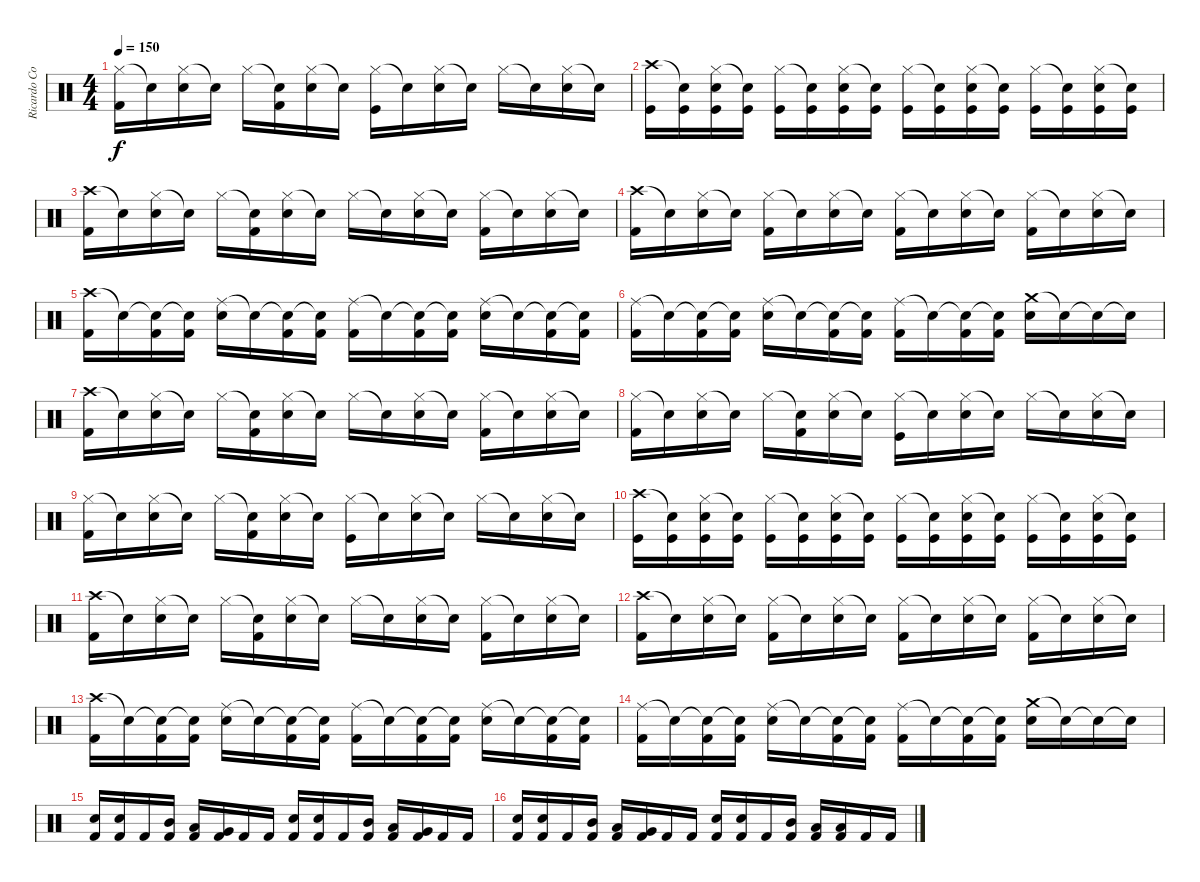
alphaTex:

\track ("Ricardo Confessori" "Ricardo Co") {instrument percussion}
\staff {score}
\articulation defaults
\ts (4 4)
\tempo 150
\clef neutral
\ks c
("Hi-Hat (closed)" "Kick (hit) 2").16{dy f} "Snare (hit)"{t}.16 ("Hi-Hat (closed)" "Electric Snare (hit)").16 "Snare (hit)"{t}.16 "Hi-Hat (closed)".16 ("Snare (hit)"{t} "Kick (hit) 2").16 ("Hi-Hat (closed)" "Electric Snare (hit)").16 "Snare (hit)"{t}.16 ("Hi-Hat (closed)" "Kick (hit)").16 "Snare (hit)"{t}.16 ("Hi-Hat (closed)" "Electric Snare (hit)").16 "Snare (hit)"{t}.16 "Hi-Hat (closed)".16 "Snare (hit)"{t}.16 ("Hi-Hat (closed)" "Electric Snare (hit)").16 "Snare (hit)"{t}.16 |
("Crash high (hit)" "Kick (hit)").16 ("Snare (hit)"{t} "Kick (hit)").16 ("Hi-Hat (closed)" "Electric Snare (hit)" "Kick (hit)").16 ("Snare (hit)"{t} "Kick (hit)").16 ("Hi-Hat (closed)" "Kick (hit)").16 ("Snare (hit)"{t} "Kick (hit)").16 ("Hi-Hat (closed)" "Electric Snare (hit)" "Kick (hit)").16 ("Snare (hit)"{t} "Kick (hit)").16 ("Hi-Hat (closed)" "Kick (hit)").16 ("Snare (hit)"{t} "Kick (hit)").16 ("Hi-Hat (closed)" "Electric Snare (hit)" "Kick (hit)").16 ("Snare (hit)"{t} "Kick (hit)").16 ("Hi-Hat (closed)" "Kick (hit)").16 ("Snare (hit)"{t} "Kick (hit)").16 ("Hi-Hat (closed)" "Electric Snare (hit)" "Kick (hit)").16 ("Snare (hit)"{t} "Kick (hit)").16 |
("Crash high (hit)" "Kick (hit) 2").16 "Snare (hit)"{t}.16 ("Hi-Hat (closed)" "Electric Snare (hit)").16 "Snare (hit)"{t}.16 "Hi-Hat (closed)".16 ("Snare (hit)"{t} "Kick (hit) 2").16 ("Hi-Hat (closed)" "Electric Snare (hit)").16 "Snare (hit)"{t}.16 "Hi-Hat (closed)".16 "Snare (hit)"{t}.16 ("Hi-Hat (closed)" "Electric Snare (hit)").16 "Snare (hit)"{t}.16 ("Hi-Hat (closed)" "Kick (hit) 2").16 "Snare (hit)"{t}.16 ("Hi-Hat (closed)" "Electric Snare (hit)").16 "Snare (hit)"{t}.16 |
("Crash high (hit)" "Kick (hit) 2").16 "Snare (hit)"{t}.16 ("Hi-Hat (closed)" "Electric Snare (hit)").16 "Snare (hit)"{t}.16 ("Hi-Hat (closed)" "Kick (hit) 2").16 "Snare (hit)"{t}.16 ("Hi-Hat (closed)" "Electric Snare (hit)").16 "Snare (hit)"{t}.16 ("Hi-Hat (closed)" "Kick (hit) 2").16 "Snare (hit)"{t}.16 ("Hi-Hat (closed)" "Electric Snare (hit)").16 "Snare (hit)"{t}.16 ("Hi-Hat (closed)" "Kick (hit) 2").16 "Snare (hit)"{t}.16 ("Hi-Hat (closed)" "Electric Snare (hit)").16 "Snare (hit)"{t}.16 |
("Crash high (hit)" "Kick (hit) 2").16 "Snare (hit)"{t}.16 ("Snare (hit)"{t} "Kick (hit) 2").16 ("Snare (hit)"{t} "Kick (hit) 2").16 ("Ride (middle)" "Electric Snare (hit)").16 "Snare (hit)"{t}.16 ("Snare (hit)"{t} "Kick (hit) 2").16 ("Snare (hit)"{t} "Kick (hit) 2").16 ("Ride (middle)" "Kick (hit) 2").16 "Snare (hit)"{t}.16 ("Snare (hit)"{t} "Kick (hit) 2").16 ("Snare (hit)"{t} "Kick (hit) 2").16 ("Ride (middle)" "Electric Snare (hit)").16 "Snare (hit)"{t}.16 ("Snare (hit)"{t} "Kick (hit) 2").16 ("Snare (hit)"{t} "Kick (hit) 2").16 |
("Ride (middle)" "Kick (hit) 2").16 "Snare (hit)"{t}.16 ("Snare (hit)"{t} "Kick (hit) 2").16 ("Snare (hit)"{t} "Kick (hit) 2").16 ("Ride (middle)" "Electric Snare (hit)").16 "Snare (hit)"{t}.16 ("Snare (hit)"{t} "Kick (hit) 2").16 ("Snare (hit)"{t} "Kick (hit) 2").16 ("Ride (middle)" "Kick (hit) 2").16 "Snare (hit)"{t}.16 ("Snare (hit)"{t} "Kick (hit) 2").16 ("Snare (hit)"{t} "Kick (hit) 2").16 ("Crash medium (hit)" "Electric Snare (hit)").16 "Snare (hit)"{t}.16 "Snare (hit)"{t}.16 "Snare (hit)"{t}.16 |
("Crash high (hit)" "Kick (hit) 2").16 "Snare (hit)"{t}.16 ("Hi-Hat (closed)" "Electric Snare (hit)").16 "Snare (hit)"{t}.16 "Hi-Hat (closed)".16 ("Snare (hit)"{t} "Kick (hit) 2").16 ("Hi-Hat (closed)" "Electric Snare (hit)").16 "Snare (hit)"{t}.16 "Hi-Hat (closed)".16 "Snare (hit)"{t}.16 ("Hi-Hat (closed)" "Electric Snare (hit)").16 "Snare (hit)"{t}.16 ("Hi-Hat (closed)" "Kick (hit) 2").16 "Snare (hit)"{t}.16 ("Hi-Hat (closed)" "Electric Snare (hit)").16 "Snare (hit)"{t}.16 |
("Hi-Hat (closed)" "Kick (hit) 2").16 "Snare (hit)"{t}.16 ("Hi-Hat (closed)" "Electric Snare (hit)").16 "Snare (hit)"{t}.16 "Hi-Hat (closed)".16 ("Snare (hit)"{t} "Kick (hit) 2").16 ("Hi-Hat (closed)" "Electric Snare (hit)").16 "Snare (hit)"{t}.16 ("Hi-Hat (closed)" "Kick (hit)").16 "Snare (hit)"{t}.16 ("Hi-Hat (closed)" "Electric Snare (hit)").16 "Snare (hit)"{t}.16 "Hi-Hat (closed)".16 "Snare (hit)"{t}.16 ("Hi-Hat (closed)" "Electric Snare (hit)").16 "Snare (hit)"{t}.16 |
("Hi-Hat (closed)" "Kick (hit) 2").16 "Snare (hit)"{t}.16 ("Hi-Hat (closed)" "Electric Snare (hit)").16 "Snare (hit)"{t}.16 "Hi-Hat (closed)".16 ("Snare (hit)"{t} "Kick (hit) 2").16 ("Hi-Hat (closed)" "Electric Snare (hit)").16 "Snare (hit)"{t}.16 ("Hi-Hat (closed)" "Kick (hit)").16 "Snare (hit)"{t}.16 ("Hi-Hat (closed)" "Electric Snare (hit)").16 "Snare (hit)"{t}.16 "Hi-Hat (closed)".16 "Snare (hit)"{t}.16 ("Hi-Hat (closed)" "Electric Snare (hit)").16 "Snare (hit)"{t}.16 |
("Crash high (hit)" "Kick (hit)").16 ("Snare (hit)"{t} "Kick (hit)").16 ("Hi-Hat (closed)" "Electric Snare (hit)" "Kick (hit)").16 ("Snare (hit)"{t} "Kick (hit)").16 ("Hi-Hat (closed)" "Kick (hit)").16 ("Snare (hit)"{t} "Kick (hit)").16 ("Hi-Hat (closed)" "Electric Snare (hit)" "Kick (hit)").16 ("Snare (hit)"{t} "Kick (hit)").16 ("Hi-Hat (closed)" "Kick (hit)").16 ("Snare (hit)"{t} "Kick (hit)").16 ("Hi-Hat (closed)" "Electric Snare (hit)" "Kick (hit)").16 ("Snare (hit)"{t} "Kick (hit)").16 ("Hi-Hat (closed)" "Kick (hit)").16 ("Snare (hit)"{t} "Kick (hit)").16 ("Hi-Hat (closed)" "Electric Snare (hit)" "Kick (hit)").16 ("Snare (hit)"{t} "Kick (hit)").16 |
("Crash high (hit)" "Kick (hit) 2").16 "Snare (hit)"{t}.16 ("Hi-Hat (closed)" "Electric Snare (hit)").16 "Snare (hit)"{t}.16 "Hi-Hat (closed)".16 ("Snare (hit)"{t} "Kick (hit) 2").16 ("Hi-Hat (closed)" "Electric Snare (hit)").16 "Snare (hit)"{t}.16 "Hi-Hat (closed)".16 "Snare (hit)"{t}.16 ("Hi-Hat (closed)" "Electric Snare (hit)").16 "Snare (hit)"{t}.16 ("Hi-Hat (closed)" "Kick (hit) 2").16 "Snare (hit)"{t}.16 ("Hi-Hat (closed)" "Electric Snare (hit)").16 "Snare (hit)"{t}.16 |
("Crash high (hit)" "Kick (hit) 2").16 "Snare (hit)"{t}.16 ("Hi-Hat (closed)" "Electric Snare (hit)").16 "Snare (hit)"{t}.16 ("Hi-Hat (closed)" "Kick (hit) 2").16 "Snare (hit)"{t}.16 ("Hi-Hat (closed)" "Electric Snare (hit)").16 "Snare (hit)"{t}.16 ("Hi-Hat (closed)" "Kick (hit) 2").16 "Snare (hit)"{t}.16 ("Hi-Hat (closed)" "Electric Snare (hit)").16 "Snare (hit)"{t}.16 ("Hi-Hat (closed)" "Kick (hit) 2").16 "Snare (hit)"{t}.16 ("Hi-Hat (closed)" "Electric Snare (hit)").16 "Snare (hit)"{t}.16 |
("Crash high (hit)" "Kick (hit) 2").16 "Snare (hit)"{t}.16 ("Snare (hit)"{t} "Kick (hit) 2").16 ("Snare (hit)"{t} "Kick (hit) 2").16 ("Ride (middle)" "Electric Snare (hit)").16 "Snare (hit)"{t}.16 ("Snare (hit)"{t} "Kick (hit) 2").16 ("Snare (hit)"{t} "Kick (hit) 2").16 ("Ride (middle)" "Kick (hit) 2").16 "Snare (hit)"{t}.16 ("Snare (hit)"{t} "Kick (hit) 2").16 ("Snare (hit)"{t} "Kick (hit) 2").16 ("Ride (middle)" "Electric Snare (hit)").16 "Snare (hit)"{t}.16 ("Snare (hit)"{t} "Kick (hit) 2").16 ("Snare (hit)"{t} "Kick (hit) 2").16 |
("Ride (middle)" "Kick (hit) 2").16 "Snare (hit)"{t}.16 ("Snare (hit)"{t} "Kick (hit) 2").16 ("Snare (hit)"{t} "Kick (hit) 2").16 ("Ride (middle)" "Electric Snare (hit)").16 "Snare (hit)"{t}.16 ("Snare (hit)"{t} "Kick (hit) 2").16 ("Snare (hit)"{t} "Kick (hit) 2").16 ("Ride (middle)" "Kick (hit) 2").16 "Snare (hit)"{t}.16 ("Snare (hit)"{t} "Kick (hit) 2").16 ("Snare (hit)"{t} "Kick (hit) 2").16 ("Crash medium (hit)" "Electric Snare (hit)").16 "Snare (hit)"{t}.16 "Snare (hit)"{t}.16 "Snare (hit)"{t}.16 |
("Electric Snare (hit)" "Kick (hit) 2").16 ("Electric Snare (hit)" "Kick (hit) 2").16 "Kick (hit) 2".16 ("Mid Tom (hit)" "Kick (hit) 2").16 ("Low Tom (hit)" "Kick (hit) 2").16 ("Very Low Tom (hit)" "Kick (hit) 2").16 "Kick (hit) 2".16 "Kick (hit) 2".16 ("Electric Snare (hit)" "Kick (hit) 2").16 ("Electric Snare (hit)" "Kick (hit) 2").16 "Kick (hit) 2".16 ("Mid Tom (hit)" "Kick (hit) 2").16 ("Low Tom (hit)" "Kick (hit) 2").16 ("Very Low Tom (hit)" "Kick (hit) 2").16 "Kick (hit) 2".16 "Kick (hit) 2".16 |
("Electric Snare (hit)" "Kick (hit) 2").16 ("Electric Snare (hit)" "Kick (hit) 2").16 "Kick (hit) 2".16 ("Mid Tom (hit)" "Kick (hit) 2").16 ("Low Tom (hit)" "Kick (hit) 2").16 ("Very Low Tom (hit)" "Kick (hit) 2").16 "Kick (hit) 2".16 "Kick (hit) 2".16 ("Electric Snare (hit)" "Kick (hit) 2").16 ("Electric Snare (hit)" "Kick (hit) 2").16 "Kick (hit) 2".16 ("Mid Tom (hit)" "Kick (hit) 2").16 ("Low Tom (hit)" "Kick (hit) 2").16 ("Low Tom (hit)" "Kick (hit) 2").16 "Kick (hit) 2".16 "Kick (hit) 2".16
